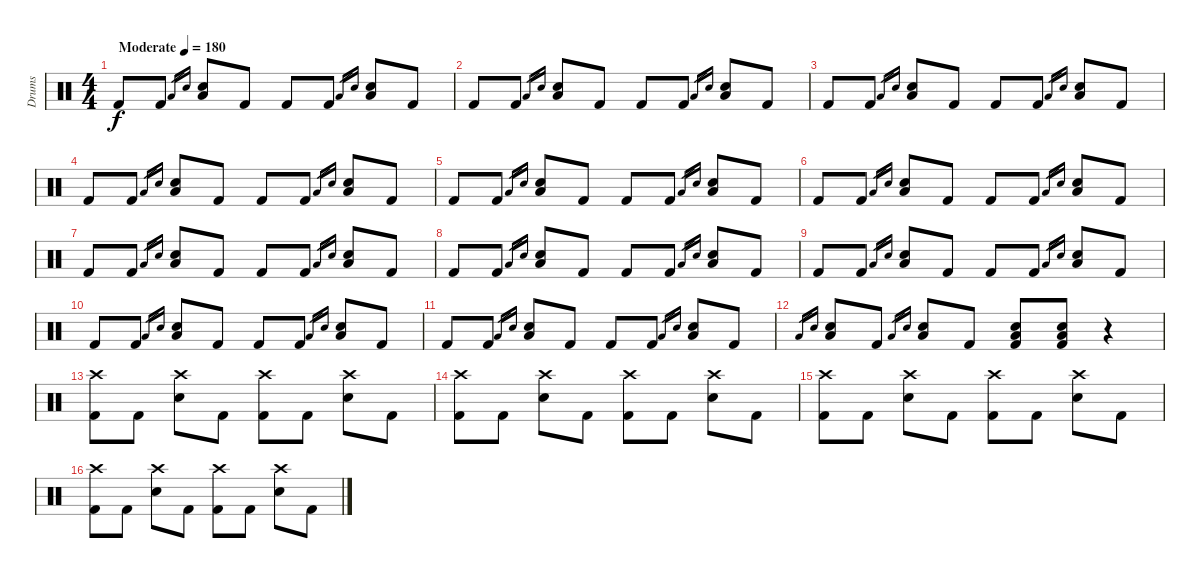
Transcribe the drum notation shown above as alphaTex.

\track ("Drums" "Drums") {instrument percussion}
\staff {score}
\articulation defaults
\ts (4 4)
\tempo (180 "Moderate")
\clef neutral
\ks c "Kick (hit) 2".8{dy f} "Kick (hit) 2".8 "Low Tom (hit)".16{gr} "Snare (hit) 2".16{gr}
("Low Tom (hit)" "Snare (hit) 2").8 "Kick (hit) 2".8 "Kick (hit) 2".8 "Kick (hit) 2".8 "Low Tom (hit)".16{gr} "Snare (hit) 2".16{gr} ("Low Tom (hit)" "Snare (hit) 2").8 "Kick (hit) 2".8 |
"Kick (hit) 2".8 "Kick (hit) 2".8 "Low Tom (hit)".16{gr} "Snare (hit) 2".16{gr} ("Low Tom (hit)" "Snare (hit) 2").8 "Kick (hit) 2".8 "Kick (hit) 2".8 "Kick (hit) 2".8 "Low Tom (hit)".16{gr} "Snare (hit) 2".16{gr} ("Low Tom (hit)" "Snare (hit) 2").8 "Kick (hit) 2".8 |
"Kick (hit) 2".8 "Kick (hit) 2".8 "Low Tom (hit)".16{gr} "Snare (hit) 2".16{gr} ("Low Tom (hit)" "Snare (hit) 2").8 "Kick (hit) 2".8 "Kick (hit) 2".8 "Kick (hit) 2".8 "Low Tom (hit)".16{gr} "Snare (hit) 2".16{gr} ("Low Tom (hit)" "Snare (hit) 2").8 "Kick (hit) 2".8 |
"Kick (hit) 2".8 "Kick (hit) 2".8 "Low Tom (hit)".16{gr} "Snare (hit) 2".16{gr} ("Low Tom (hit)" "Snare (hit) 2").8 "Kick (hit) 2".8 "Kick (hit) 2".8 "Kick (hit) 2".8 "Low Tom (hit)".16{gr} "Snare (hit) 2".16{gr} ("Low Tom (hit)" "Snare (hit) 2").8 "Kick (hit) 2".8 |
"Kick (hit) 2".8 "Kick (hit) 2".8 "Low Tom (hit)".16{gr} "Snare (hit) 2".16{gr} ("Low Tom (hit)" "Snare (hit) 2").8 "Kick (hit) 2".8 "Kick (hit) 2".8 "Kick (hit) 2".8 "Low Tom (hit)".16{gr} "Snare (hit) 2".16{gr} ("Low Tom (hit)" "Snare (hit) 2").8 "Kick (hit) 2".8 |
"Kick (hit) 2".8 "Kick (hit) 2".8 "Low Tom (hit)".16{gr} "Snare (hit) 2".16{gr} ("Low Tom (hit)" "Snare (hit) 2").8 "Kick (hit) 2".8 "Kick (hit) 2".8 "Kick (hit) 2".8 "Low Tom (hit)".16{gr} "Snare (hit) 2".16{gr} ("Low Tom (hit)" "Snare (hit) 2").8 "Kick (hit) 2".8 |
"Kick (hit) 2".8 "Kick (hit) 2".8 "Low Tom (hit)".16{gr} "Snare (hit) 2".16{gr} ("Low Tom (hit)" "Snare (hit) 2").8 "Kick (hit) 2".8 "Kick (hit) 2".8 "Kick (hit) 2".8 "Low Tom (hit)".16{gr} "Snare (hit) 2".16{gr} ("Low Tom (hit)" "Snare (hit) 2").8 "Kick (hit) 2".8 |
"Kick (hit) 2".8 "Kick (hit) 2".8 "Low Tom (hit)".16{gr} "Snare (hit) 2".16{gr} ("Low Tom (hit)" "Snare (hit) 2").8 "Kick (hit) 2".8 "Kick (hit) 2".8 "Kick (hit) 2".8 "Low Tom (hit)".16{gr} "Snare (hit) 2".16{gr} ("Low Tom (hit)" "Snare (hit) 2").8 "Kick (hit) 2".8 |
"Kick (hit) 2".8 "Kick (hit) 2".8 "Low Tom (hit)".16{gr} "Snare (hit) 2".16{gr} ("Low Tom (hit)" "Snare (hit) 2").8 "Kick (hit) 2".8 "Kick (hit) 2".8 "Kick (hit) 2".8 "Low Tom (hit)".16{gr} "Snare (hit) 2".16{gr} ("Low Tom (hit)" "Snare (hit) 2").8 "Kick (hit) 2".8 |
"Kick (hit) 2".8 "Kick (hit) 2".8 "Low Tom (hit)".16{gr} "Snare (hit) 2".16{gr} ("Low Tom (hit)" "Snare (hit) 2").8 "Kick (hit) 2".8 "Kick (hit) 2".8 "Kick (hit) 2".8 "Low Tom (hit)".16{gr} "Snare (hit) 2".16{gr} ("Low Tom (hit)" "Snare (hit) 2").8 "Kick (hit) 2".8 |
"Kick (hit) 2".8 "Kick (hit) 2".8 "Low Tom (hit)".16{gr} "Snare (hit) 2".16{gr} ("Low Tom (hit)" "Snare (hit) 2").8 "Kick (hit) 2".8 "Kick (hit) 2".8 "Kick (hit) 2".8 "Low Tom (hit)".16{gr} "Snare (hit) 2".16{gr} ("Low Tom (hit)" "Snare (hit) 2").8 "Kick (hit) 2".8 |
"Low Tom (hit)".16{gr} "Snare (hit) 2".16{gr} ("Low Tom (hit)" "Snare (hit) 2").8 "Kick (hit) 2".8 "Low Tom (hit)".16{gr} "Snare (hit) 2".16{gr} ("Low Tom (hit)" "Snare (hit) 2").8 "Kick (hit) 2".8 ("Low Tom (hit)" "Snare (hit) 2" "Kick (hit) 2").8 ("Low Tom (hit)" "Snare (hit) 2" "Kick (hit) 2").8 r.4 |
("Crash high (hit)" "Kick (hit) 2").8 "Kick (hit) 2".8 ("Crash high (hit)" "Snare (hit) 2").8 "Kick (hit) 2".8 ("Crash high (hit)" "Kick (hit) 2").8 "Kick (hit) 2".8 ("Crash high (hit)" "Snare (hit) 2").8 "Kick (hit) 2".8 |
("Crash high (hit)" "Kick (hit) 2").8 "Kick (hit) 2".8 ("Crash high (hit)" "Snare (hit) 2").8 "Kick (hit) 2".8 ("Crash high (hit)" "Kick (hit) 2").8 "Kick (hit) 2".8 ("Crash high (hit)" "Snare (hit) 2").8 "Kick (hit) 2".8 |
("Crash high (hit)" "Kick (hit) 2").8 "Kick (hit) 2".8 ("Crash high (hit)" "Snare (hit) 2").8 "Kick (hit) 2".8 ("Crash high (hit)" "Kick (hit) 2").8 "Kick (hit) 2".8 ("Crash high (hit)" "Snare (hit) 2").8 "Kick (hit) 2".8 |
("Crash high (hit)" "Kick (hit) 2").8 "Kick (hit) 2".8 ("Crash high (hit)" "Snare (hit) 2").8 "Kick (hit) 2".8 ("Crash high (hit)" "Kick (hit) 2").8 "Kick (hit) 2".8 ("Crash high (hit)" "Snare (hit) 2").8 "Kick (hit) 2".8
